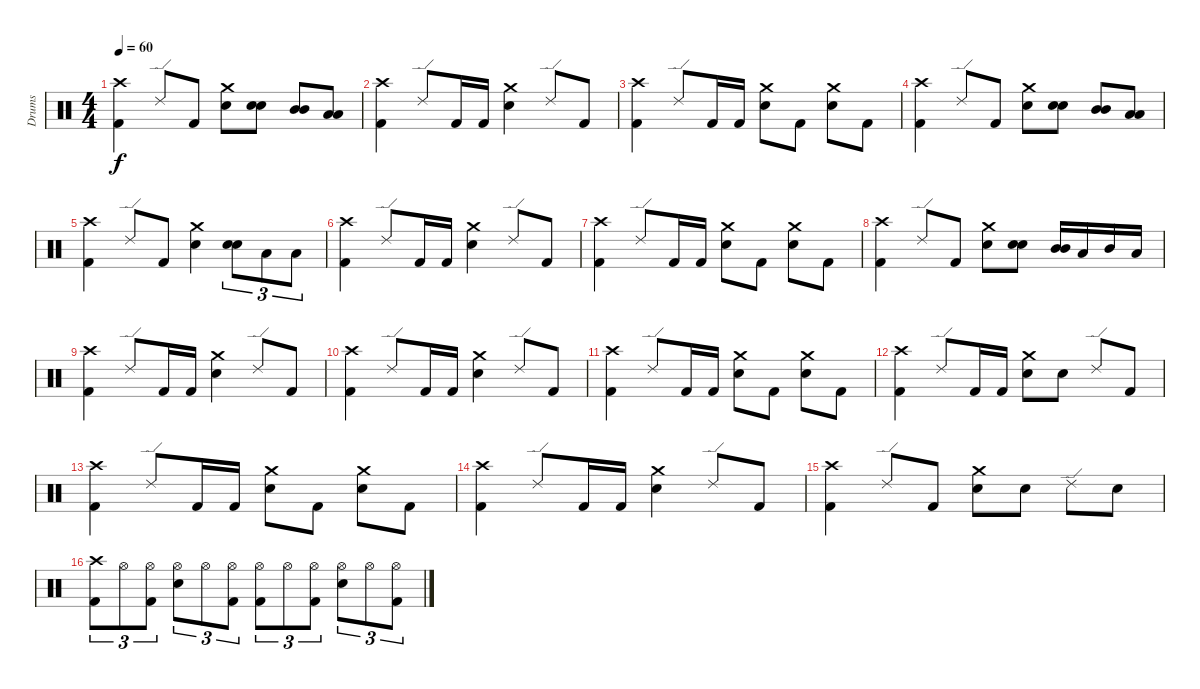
\track ("Drums" "Drums") {instrument percussion}
\staff {score}
\articulation defaults
\ts (4 4)
\tempo 60
\clef neutral
\ks c
("Crash high (hit)" "Kick (hit) 2").4{dy f} "Ride (edge) 2".8 "Kick (hit) 2".8 ("Crash medium (hit)" "Electric Snare (hit)").8 ("Electric Snare (hit)" "Electric Snare (hit)").8{bu 60} ("Mid Tom (hit)" "Mid Tom (hit)").8{bu 60} ("Low Tom (hit)" "Low Tom (hit)").8{bu 60} |
("Crash high (hit)" "Kick (hit) 2").4 "Ride (edge) 2".8 "Kick (hit) 2".16 "Kick (hit) 2".16 ("Crash medium (hit)" "Electric Snare (hit)").4 "Ride (edge) 2".8 "Kick (hit) 2".8 |
("Crash high (hit)" "Kick (hit) 2").4 "Ride (edge) 2".8 "Kick (hit) 2".16 "Kick (hit) 2".16 ("Crash medium (hit)" "Electric Snare (hit)").8 "Kick (hit) 2".8 ("Crash medium (hit)" "Electric Snare (hit)").8 "Kick (hit) 2".8 |
("Crash high (hit)" "Kick (hit) 2").4 "Ride (edge) 2".8 "Kick (hit) 2".8 ("Crash medium (hit)" "Electric Snare (hit)").8 ("Electric Snare (hit)" "Electric Snare (hit)").8{bu 60} ("Mid Tom (hit)" "Mid Tom (hit)").8{bu 60} ("Low Tom (hit)" "Low Tom (hit)").8{bu 60} |
("Crash high (hit)" "Kick (hit) 2").4 "Ride (edge) 2".8 "Kick (hit) 2".8 ("Crash medium (hit)" "Electric Snare (hit)").4 ("Electric Snare (hit)" "Electric Snare (hit)").8{tu (3 2) bu 60} "Low Tom (hit)".8{tu (3 2)} "Low Tom (hit)".8{tu (3 2)} |
("Crash high (hit)" "Kick (hit) 2").4 "Ride (edge) 2".8 "Kick (hit) 2".16 "Kick (hit) 2".16 ("Crash medium (hit)" "Electric Snare (hit)").4 "Ride (edge) 2".8 "Kick (hit) 2".8 |
("Crash high (hit)" "Kick (hit) 2").4 "Ride (edge) 2".8 "Kick (hit) 2".16 "Kick (hit) 2".16 ("Crash medium (hit)" "Electric Snare (hit)").8 "Kick (hit) 2".8 ("Crash medium (hit)" "Electric Snare (hit)").8 "Kick (hit) 2".8 |
("Crash high (hit)" "Kick (hit) 2").4 "Ride (edge) 2".8 "Kick (hit) 2".8 ("Crash medium (hit)" "Electric Snare (hit)").8 ("Electric Snare (hit)" "Electric Snare (hit)").8{bu 60} ("Mid Tom (hit)" "Mid Tom (hit)").16{bu 60} "Low Tom (hit)".16 "Mid Tom (hit)".16 "Low Tom (hit)".16 |
("Crash high (hit)" "Kick (hit) 2").4 "Ride (edge) 2".8 "Kick (hit) 2".16 "Kick (hit) 2".16 ("Crash medium (hit)" "Electric Snare (hit)").4 "Ride (edge) 2".8 "Kick (hit) 2".8 |
("Crash high (hit)" "Kick (hit) 2").4 "Ride (edge) 2".8 "Kick (hit) 2".16 "Kick (hit) 2".16 ("Crash medium (hit)" "Electric Snare (hit)").4 "Ride (edge) 2".8 "Kick (hit) 2".8 |
("Crash high (hit)" "Kick (hit) 2").4 "Ride (edge) 2".8 "Kick (hit) 2".16 "Kick (hit) 2".16 ("Crash medium (hit)" "Electric Snare (hit)").8 "Kick (hit) 2".8 ("Crash medium (hit)" "Electric Snare (hit)").8 "Kick (hit) 2".8 |
("Crash high (hit)" "Kick (hit) 2").4 "Ride (edge) 2".8 "Kick (hit) 2".16 "Kick (hit) 2".16 ("Crash medium (hit)" "Electric Snare (hit)").8 "Electric Snare (hit)".8 "Ride (edge) 2".8 "Kick (hit) 2".8 |
("Crash high (hit)" "Kick (hit) 2").4 "Ride (edge) 2".8 "Kick (hit) 2".16 "Kick (hit) 2".16 ("Crash medium (hit)" "Electric Snare (hit)").8 "Kick (hit) 2".8 ("Crash medium (hit)" "Electric Snare (hit)").8 "Kick (hit) 2".8 |
("Crash high (hit)" "Kick (hit) 2").4 "Ride (edge) 2".8 "Kick (hit) 2".16 "Kick (hit) 2".16 ("Crash medium (hit)" "Electric Snare (hit)").4 "Ride (edge) 2".8 "Kick (hit) 2".8 |
("Crash high (hit)" "Kick (hit) 2").4 "Ride (edge) 2".8 "Kick (hit) 2".8 ("Crash medium (hit)" "Electric Snare (hit)").8 "Electric Snare (hit)".8 "Ride (edge) 2".8 "Electric Snare (hit)".8 |
("Crash high (hit)" "Kick (hit) 2").8{tu (3 2)} "Hi-Hat (open)".8{tu (3 2)} ("Hi-Hat (open)" "Kick (hit) 2").8{tu (3 2)} ("Hi-Hat (open)" "Electric Snare (hit)").8{tu (3 2)} "Hi-Hat (open)".8{tu (3 2)} ("Hi-Hat (open)" "Kick (hit) 2").8{tu (3 2)} ("Hi-Hat (open)" "Kick (hit) 2").8{tu (3 2)} "Hi-Hat (open)".8{tu (3 2)} ("Hi-Hat (open)" "Kick (hit) 2").8{tu (3 2)} ("Hi-Hat (open)" "Electric Snare (hit)").8{tu (3 2)} "Hi-Hat (open)".8{tu (3 2)} ("Hi-Hat (open)" "Kick (hit) 2").8{tu (3 2)}
